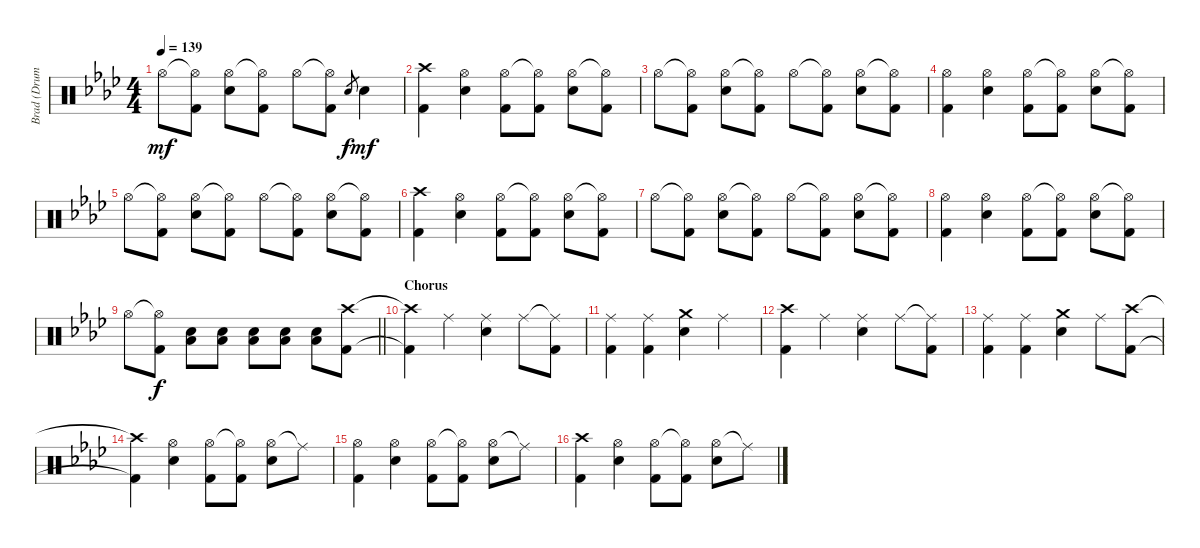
\track ("Brad (Drums)" "Brad (Drum") {instrument percussion}
\staff {score}
\articulation defaults
\ts (4 4)
\tempo 139
\clef neutral
\ks ab "Hi-Hat (open)".8{dy mf}
("Hi-Hat (open)"{t} "Kick (hit) 2").8 ("Hi-Hat (open)" "Snare (hit) 2").8 ("Hi-Hat (open)"{t} "Kick (hit) 2").8 "Hi-Hat (open)".8 ("Hi-Hat (open)"{t} "Kick (hit) 2").8 "Snare (hit) 2".8{gr dy f} "Snare (hit) 2".4{dy mf} |
("Crash high (hit)" "Kick (hit) 2").4 ("Hi-Hat (open)" "Snare (hit) 2").4 ("Hi-Hat (open)" "Kick (hit) 2").8 ("Hi-Hat (open)"{t} "Kick (hit) 2").8 ("Hi-Hat (open)" "Snare (hit) 2").8 ("Hi-Hat (open)"{t} "Kick (hit) 2").8 |
"Hi-Hat (open)".8 ("Hi-Hat (open)"{t} "Kick (hit) 2").8 ("Hi-Hat (open)" "Snare (hit) 2").8 ("Hi-Hat (open)"{t} "Kick (hit) 2").8 "Hi-Hat (open)".8 ("Hi-Hat (open)"{t} "Kick (hit) 2").8 ("Hi-Hat (open)" "Snare (hit) 2").8 ("Hi-Hat (open)"{t} "Kick (hit) 2").8 |
("Hi-Hat (open)" "Kick (hit) 2").4 ("Hi-Hat (open)" "Snare (hit) 2").4 ("Hi-Hat (open)" "Kick (hit) 2").8 ("Hi-Hat (open)"{t} "Kick (hit) 2").8 ("Hi-Hat (open)" "Snare (hit) 2").8 ("Hi-Hat (open)"{t} "Kick (hit) 2").8 |
"Hi-Hat (open)".8 ("Hi-Hat (open)"{t} "Kick (hit) 2").8 ("Hi-Hat (open)" "Snare (hit) 2").8 ("Hi-Hat (open)"{t} "Kick (hit) 2").8 "Hi-Hat (open)".8 ("Hi-Hat (open)"{t} "Kick (hit) 2").8 ("Hi-Hat (open)" "Snare (hit) 2").8 ("Hi-Hat (open)"{t} "Kick (hit) 2").8 |
("Crash high (hit)" "Kick (hit) 2").4 ("Hi-Hat (open)" "Snare (hit) 2").4 ("Hi-Hat (open)" "Kick (hit) 2").8 ("Hi-Hat (open)"{t} "Kick (hit) 2").8 ("Hi-Hat (open)" "Snare (hit) 2").8 ("Hi-Hat (open)"{t} "Kick (hit) 2").8 |
"Hi-Hat (open)".8 ("Hi-Hat (open)"{t} "Kick (hit) 2").8 ("Hi-Hat (open)" "Snare (hit) 2").8 ("Hi-Hat (open)"{t} "Kick (hit) 2").8 "Hi-Hat (open)".8 ("Hi-Hat (open)"{t} "Kick (hit) 2").8 ("Hi-Hat (open)" "Snare (hit) 2").8 ("Hi-Hat (open)"{t} "Kick (hit) 2").8 |
("Hi-Hat (open)" "Kick (hit) 2").4 ("Hi-Hat (open)" "Snare (hit) 2").4 ("Hi-Hat (open)" "Kick (hit) 2").8 ("Hi-Hat (open)"{t} "Kick (hit) 2").8 ("Hi-Hat (open)" "Snare (hit) 2").8 ("Hi-Hat (open)"{t} "Kick (hit) 2").8 |
\barLineRight lightlight "Hi-Hat (open)".8
("Hi-Hat (open)"{t} "Kick (hit) 2").8{dy f} ("Low Tom (hit)" "Snare (hit) 2").8 ("Low Tom (hit)" "Snare (hit) 2").8 ("Low Tom (hit)" "Snare (hit) 2").8 ("Low Tom (hit)" "Snare (hit) 2").8 ("Low Tom (hit)" "Snare (hit) 2").8 ("Crash high (hit)" "Kick (hit) 2").8 |
\section ("" "Chorus")
("Crash high (hit)"{t} "Kick (hit) 2"{t}).4 "Ride (middle)".4 ("Ride (middle)" "Snare (hit) 2").4 "Ride (middle)".8 ("Ride (middle)"{t} "Kick (hit) 2").8 |
("Ride (middle)" "Kick (hit) 2").4 ("Ride (middle)" "Kick (hit) 2").4 ("Crash medium (hit)" "Snare (hit) 2").4 "Ride (middle)".4 |
("Crash high (hit)" "Kick (hit) 2").4 "Ride (middle)".4 ("Ride (middle)" "Snare (hit) 2").4 "Ride (middle)".8 ("Ride (middle)"{t} "Kick (hit) 2").8 |
("Ride (middle)" "Kick (hit) 2").4 ("Ride (middle)" "Kick (hit) 2").4 ("Crash medium (hit)" "Snare (hit) 2").4 "Ride (middle)".8 ("Crash high (hit)" "Kick (hit) 2").8 |
("Crash high (hit)"{t} "Kick (hit) 2"{t}).4 ("Hi-Hat (open)" "Snare (hit) 2").4 ("Hi-Hat (open)" "Kick (hit) 2").8 ("Hi-Hat (open)"{t} "Kick (hit) 2").8 ("Hi-Hat (open)" "Snare (hit) 2").8 "Ride (middle)"{t}.8 |
("Hi-Hat (open)" "Kick (hit) 2").4 ("Hi-Hat (open)" "Snare (hit) 2").4 ("Hi-Hat (open)" "Kick (hit) 2").8 ("Hi-Hat (open)"{t} "Kick (hit) 2").8 ("Hi-Hat (open)" "Snare (hit) 2").8 "Ride (middle)"{t}.8 |
("Crash high (hit)" "Kick (hit) 2").4 ("Hi-Hat (open)" "Snare (hit) 2").4 ("Hi-Hat (open)" "Kick (hit) 2").8 ("Hi-Hat (open)"{t} "Kick (hit) 2").8 ("Hi-Hat (open)" "Snare (hit) 2").8 "Ride (middle)"{t}.8
